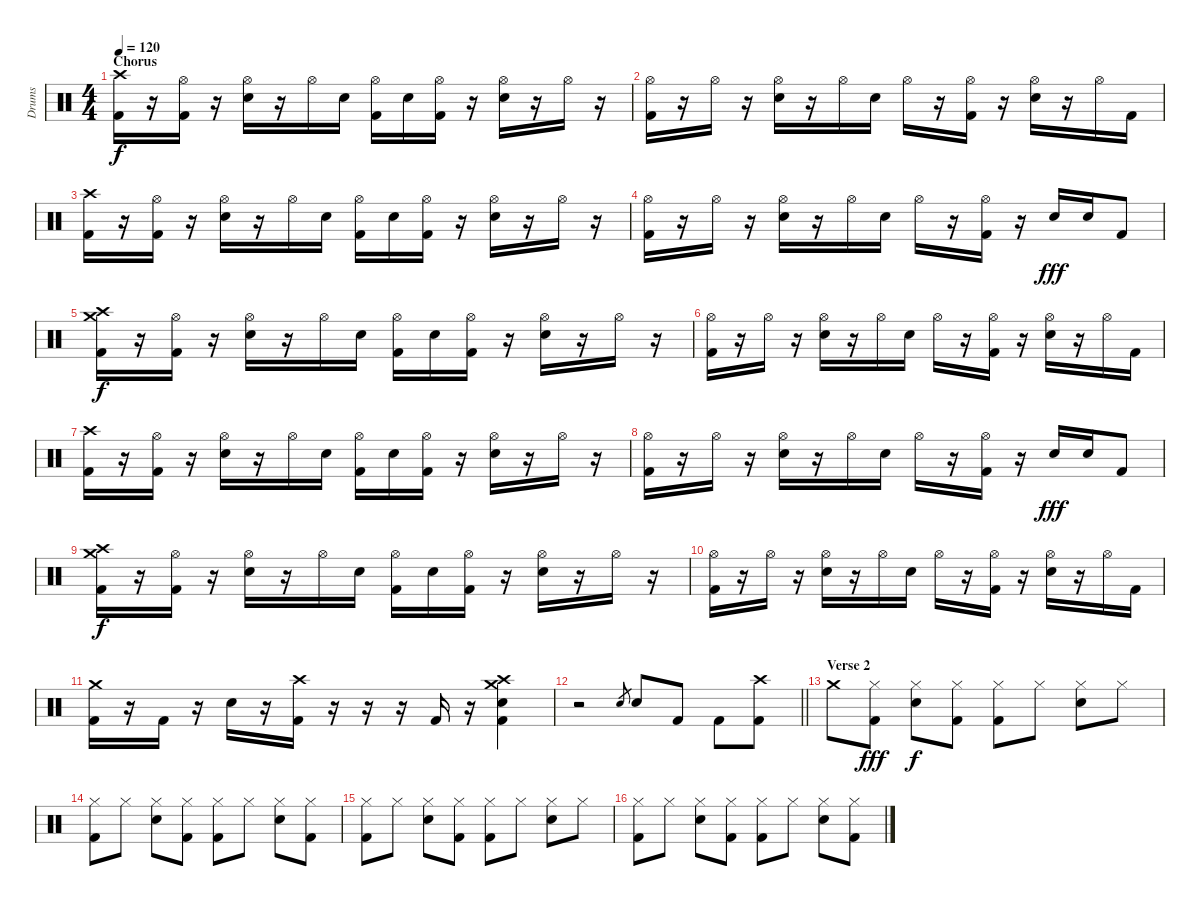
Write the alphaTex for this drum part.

\track ("Drums" "Drums") {instrument percussion}
\staff {score}
\articulation defaults
\ts (4 4)
\section ("" "Chorus")
\tempo 120
\clef neutral
\ks c
("Crash high (hit)" "Kick (hit) 2").16{dy f} r.16 ("Hi-Hat (open)" "Kick (hit) 2").16 r.16 ("Hi-Hat (open)" "Electric Snare (hit)").16 r.16 "Hi-Hat (open)".16 "Electric Snare (hit)".16 ("Hi-Hat (open)" "Kick (hit) 2").16 "Electric Snare (hit)".16 ("Hi-Hat (open)" "Kick (hit) 2").16 r.16 ("Hi-Hat (open)" "Electric Snare (hit)").16 r.16 "Hi-Hat (open)".16 r.16 |
("Hi-Hat (open)" "Kick (hit) 2").16 r.16 "Hi-Hat (open)".16 r.16 ("Hi-Hat (open)" "Electric Snare (hit)").16 r.16 "Hi-Hat (open)".16 "Electric Snare (hit)".16 "Hi-Hat (open)".16 r.16 ("Hi-Hat (open)" "Kick (hit) 2").16 r.16 ("Hi-Hat (open)" "Electric Snare (hit)").16 r.16 "Hi-Hat (open)".16 "Kick (hit) 2".16 |
("Crash high (hit)" "Kick (hit) 2").16 r.16 ("Hi-Hat (open)" "Kick (hit) 2").16 r.16 ("Hi-Hat (open)" "Electric Snare (hit)").16 r.16 "Hi-Hat (open)".16 "Electric Snare (hit)".16 ("Hi-Hat (open)" "Kick (hit) 2").16 "Electric Snare (hit)".16 ("Hi-Hat (open)" "Kick (hit) 2").16 r.16 ("Hi-Hat (open)" "Electric Snare (hit)").16 r.16 "Hi-Hat (open)".16 r.16 |
("Hi-Hat (open)" "Kick (hit) 2").16 r.16 "Hi-Hat (open)".16 r.16 ("Hi-Hat (open)" "Electric Snare (hit)").16 r.16 "Hi-Hat (open)".16 "Electric Snare (hit)".16 "Hi-Hat (open)".16 r.16 ("Hi-Hat (open)" "Kick (hit) 2").16 r.16 "Electric Snare (hit)".16{dy fff} "Electric Snare (hit)".16 "Kick (hit) 2".8 |
("Crash medium (hit)" "Crash high (hit)" "Kick (hit) 2").16{dy f} r.16 ("Hi-Hat (open)" "Kick (hit) 2").16 r.16 ("Hi-Hat (open)" "Electric Snare (hit)").16 r.16 "Hi-Hat (open)".16 "Electric Snare (hit)".16 ("Hi-Hat (open)" "Kick (hit) 2").16 "Electric Snare (hit)".16 ("Hi-Hat (open)" "Kick (hit) 2").16 r.16 ("Hi-Hat (open)" "Electric Snare (hit)").16 r.16 "Hi-Hat (open)".16 r.16 |
("Hi-Hat (open)" "Kick (hit) 2").16 r.16 "Hi-Hat (open)".16 r.16 ("Hi-Hat (open)" "Electric Snare (hit)").16 r.16 "Hi-Hat (open)".16 "Electric Snare (hit)".16 "Hi-Hat (open)".16 r.16 ("Hi-Hat (open)" "Kick (hit) 2").16 r.16 ("Hi-Hat (open)" "Electric Snare (hit)").16 r.16 "Hi-Hat (open)".16 "Kick (hit) 2".16 |
("Crash high (hit)" "Kick (hit) 2").16 r.16 ("Hi-Hat (open)" "Kick (hit) 2").16 r.16 ("Hi-Hat (open)" "Electric Snare (hit)").16 r.16 "Hi-Hat (open)".16 "Electric Snare (hit)".16 ("Hi-Hat (open)" "Kick (hit) 2").16 "Electric Snare (hit)".16 ("Hi-Hat (open)" "Kick (hit) 2").16 r.16 ("Hi-Hat (open)" "Electric Snare (hit)").16 r.16 "Hi-Hat (open)".16 r.16 |
("Hi-Hat (open)" "Kick (hit) 2").16 r.16 "Hi-Hat (open)".16 r.16 ("Hi-Hat (open)" "Electric Snare (hit)").16 r.16 "Hi-Hat (open)".16 "Electric Snare (hit)".16 "Hi-Hat (open)".16 r.16 ("Hi-Hat (open)" "Kick (hit) 2").16 r.16 "Electric Snare (hit)".16{dy fff} "Electric Snare (hit)".16 "Kick (hit) 2".8 |
("Crash medium (hit)" "Crash high (hit)" "Kick (hit) 2").16{dy f} r.16 ("Hi-Hat (open)" "Kick (hit) 2").16 r.16 ("Hi-Hat (open)" "Electric Snare (hit)").16 r.16 "Hi-Hat (open)".16 "Electric Snare (hit)".16 ("Hi-Hat (open)" "Kick (hit) 2").16 "Electric Snare (hit)".16 ("Hi-Hat (open)" "Kick (hit) 2").16 r.16 ("Hi-Hat (open)" "Electric Snare (hit)").16 r.16 "Hi-Hat (open)".16 r.16 |
("Hi-Hat (open)" "Kick (hit) 2").16 r.16 "Hi-Hat (open)".16 r.16 ("Hi-Hat (open)" "Electric Snare (hit)").16 r.16 "Hi-Hat (open)".16 "Electric Snare (hit)".16 "Hi-Hat (open)".16 r.16 ("Hi-Hat (open)" "Kick (hit) 2").16 r.16 ("Hi-Hat (open)" "Electric Snare (hit)").16 r.16 "Hi-Hat (open)".16 "Kick (hit) 2".16 |
("Crash medium (hit)" "Kick (hit) 2").16 r.16 "Kick (hit) 2".16 r.16 "Electric Snare (hit)".16 r.16 ("Crash high (hit)" "Kick (hit) 2").16 r.16 r.16 r.16 "Kick (hit) 2".16 r.16 ("Crash high (hit)" "Crash medium (hit)" "Electric Snare (hit)" "Kick (hit) 2").4 |
\barLineRight lightlight
r.2 "Electric Snare (hit)".8{gr} "Electric Snare (hit)".8 "Kick (hit) 2".8 "Kick (hit) 2".8 ("Crash high (hit)" "Kick (hit) 2").8 |
\section ("" "Verse 2")
"Crash medium (hit)".8{volume 12} ("Hi-Hat (closed)" "Kick (hit) 2").8{dy fff} ("Hi-Hat (closed)" "Electric Snare (hit)").8{dy f} ("Hi-Hat (closed)" "Kick (hit) 2").8 ("Hi-Hat (closed)" "Kick (hit) 2").8 "Hi-Hat (closed)".8 ("Hi-Hat (closed)" "Electric Snare (hit)").8 "Hi-Hat (closed)".8 |
("Hi-Hat (closed)" "Kick (hit) 2").8 "Hi-Hat (closed)".8 ("Hi-Hat (closed)" "Electric Snare (hit)").8 ("Hi-Hat (closed)" "Kick (hit) 2").8 ("Hi-Hat (closed)" "Kick (hit) 2").8 "Hi-Hat (closed)".8 ("Hi-Hat (closed)" "Electric Snare (hit)").8 ("Hi-Hat (closed)" "Kick (hit) 2").8 |
("Hi-Hat (closed)" "Kick (hit) 2").8 "Hi-Hat (closed)".8 ("Hi-Hat (closed)" "Electric Snare (hit)").8 ("Hi-Hat (closed)" "Kick (hit) 2").8 ("Hi-Hat (closed)" "Kick (hit) 2").8 "Hi-Hat (closed)".8 ("Hi-Hat (closed)" "Electric Snare (hit)").8 "Hi-Hat (closed)".8 |
("Hi-Hat (closed)" "Kick (hit) 2").8 "Hi-Hat (closed)".8 ("Hi-Hat (closed)" "Electric Snare (hit)").8 ("Hi-Hat (closed)" "Kick (hit) 2").8 ("Hi-Hat (closed)" "Kick (hit) 2").8 "Hi-Hat (closed)".8 ("Hi-Hat (closed)" "Electric Snare (hit)").8 ("Hi-Hat (closed)" "Kick (hit) 2").8
